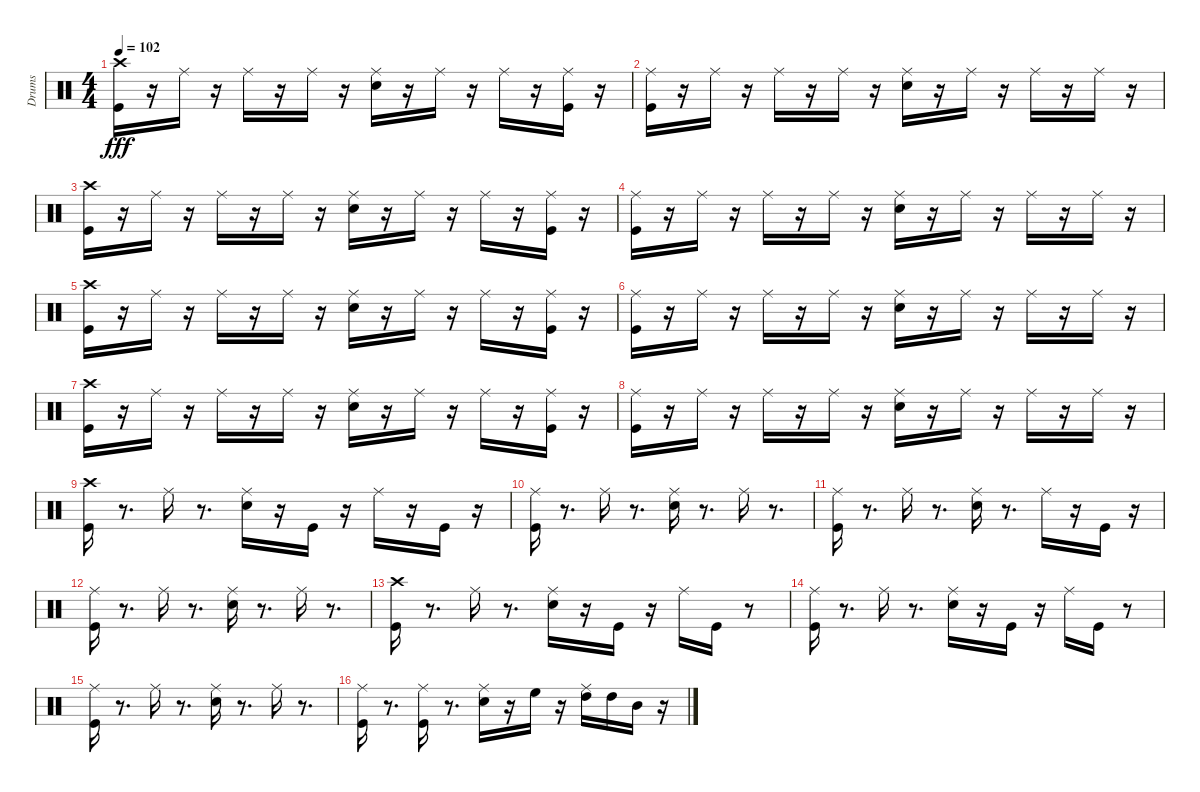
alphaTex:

\track ("Drums" "Drums") {instrument percussion}
\staff {score}
\articulation defaults
\ts (4 4)
\tempo 102
\clef neutral
\ks c
("Kick (hit)" "Crash high (hit)").16{dy fff} r.16 "Ride (middle)".16 r.16 "Ride (middle)".16 r.16 "Ride (middle)".16 r.16 ("Ride (middle)" "Snare (hit) 2").16 r.16 "Ride (middle)".16 r.16 "Ride (middle)".16 r.16 ("Ride (middle)" "Kick (hit)").16 r.16 |
("Kick (hit)" "Ride (middle)").16 r.16 "Ride (middle)".16 r.16 "Ride (middle)".16 r.16 "Ride (middle)".16 r.16 ("Snare (hit) 2" "Ride (middle)").16 r.16 "Ride (middle)".16 r.16 "Ride (middle)".16 r.16 "Ride (middle)".16 r.16 |
("Crash high (hit)" "Kick (hit)").16 r.16 "Ride (middle)".16 r.16 "Ride (middle)".16 r.16 "Ride (middle)".16 r.16 ("Snare (hit) 2" "Ride (middle)").16 r.16 "Ride (middle)".16 r.16 "Ride (middle)".16 r.16 ("Kick (hit)" "Ride (middle)").16 r.16 |
("Ride (middle)" "Kick (hit)").16 r.16 "Ride (middle)".16 r.16 "Ride (middle)".16 r.16 "Ride (middle)".16 r.16 ("Ride (middle)" "Snare (hit) 2").16 r.16 "Ride (middle)".16 r.16 "Ride (middle)".16 r.16 "Ride (middle)".16 r.16 |
("Crash high (hit)" "Kick (hit)").16 r.16 "Ride (middle)".16 r.16 "Ride (middle)".16 r.16 "Ride (middle)".16 r.16 ("Snare (hit) 2" "Ride (middle)").16 r.16 "Ride (middle)".16 r.16 "Ride (middle)".16 r.16 ("Kick (hit)" "Ride (middle)").16 r.16 |
("Ride (middle)" "Kick (hit)").16 r.16 "Ride (middle)".16 r.16 "Ride (middle)".16 r.16 "Ride (middle)".16 r.16 ("Ride (middle)" "Snare (hit) 2").16 r.16 "Ride (middle)".16 r.16 "Ride (middle)".16 r.16 "Ride (middle)".16 r.16 |
("Kick (hit)" "Crash high (hit)").16 r.16 "Ride (middle)".16 r.16 "Ride (middle)".16 r.16 "Ride (middle)".16 r.16 ("Ride (middle)" "Snare (hit) 2").16 r.16 "Ride (middle)".16 r.16 "Ride (middle)".16 r.16 ("Ride (middle)" "Kick (hit)").16 r.16 |
("Kick (hit)" "Ride (middle)").16 r.16 "Ride (middle)".16 r.16 "Ride (middle)".16 r.16 "Ride (middle)".16 r.16 ("Snare (hit) 2" "Ride (middle)").16 r.16 "Ride (middle)".16 r.16 "Ride (middle)".16 r.16 "Ride (middle)".16 r.16 |
("Kick (hit)" "Crash high (hit)").16 r.8{d} "Ride (middle)".16 r.8{d} ("Ride (middle)" "Snare (hit) 2").16 r.16 "Kick (hit)".16 r.16 "Ride (middle)".16 r.16 "Kick (hit)".16 r.16 |
("Kick (hit)" "Ride (middle)").16 r.8{d} "Ride (middle)".16 r.8{d} ("Snare (hit) 2" "Ride (middle)").16 r.8{d} "Ride (middle)".16 r.8{d} |
("Kick (hit)" "Ride (middle)").16 r.8{d} "Ride (middle)".16 r.8{d} ("Snare (hit) 2" "Ride (middle)").16 r.8{d} "Ride (middle)".16 r.16 "Kick (hit)".16 r.16 |
("Kick (hit)" "Ride (middle)").16 r.8{d} "Ride (middle)".16 r.8{d} ("Ride (middle)" "Snare (hit) 2").16 r.8{d} "Ride (middle)".16 r.8{d} |
("Kick (hit)" "Crash high (hit)").16 r.8{d} "Ride (middle)".16 r.8{d} ("Ride (middle)" "Snare (hit) 2").16 r.16 "Kick (hit)".16 r.16 "Ride (middle)".16 "Kick (hit)".16 r.8 |
("Kick (hit)" "Ride (middle)").16 r.8{d} "Ride (middle)".16 r.8{d} ("Snare (hit) 2" "Ride (middle)").16 r.16 "Kick (hit)".16 r.16 "Ride (middle)".16 "Kick (hit)".16 r.8 |
("Ride (middle)" "Kick (hit)").16 r.8{d} "Ride (middle)".16 r.8{d} ("Ride (middle)" "Snare (hit) 2").16 r.8{d} "Ride (middle)".16 r.8{d} |
("Ride (middle)" "Kick (hit)").16 r.8{d} ("Ride (middle)" "Kick (hit)").16 r.8{d} ("Ride (middle)" "Snare (hit) 2").16 r.16 "High Floor Tom (hit)".16 r.16 ("High Tom (hit)" "Ride (middle)").16 "High Tom (hit)".16 "Mid Tom (hit)".16 r.16
